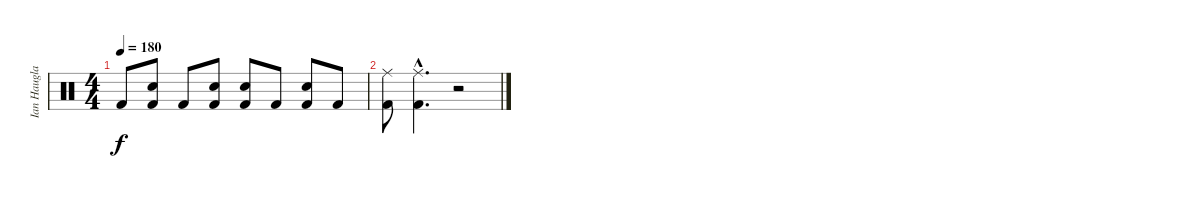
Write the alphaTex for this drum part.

\track ("Ian Haugland drums" "Ian Haugla") {instrument percussion}
\staff {score}
\articulation defaults
\ts (4 4)
\tempo 180
\clef neutral
\ks c "Kick (hit) 2".8{dy f}
("Snare (hit) 2" "Kick (hit) 2").8 "Kick (hit) 2".8 ("Snare (hit) 2" "Kick (hit) 2").8 ("Snare (hit) 2" "Kick (hit) 2").8 "Kick (hit) 2".8 ("Snare (hit) 2" "Kick (hit) 2").8 "Kick (hit) 2".8 |
("Ride (middle)" "Kick (hit) 2").8 ("Ride (middle)"{hac} "Kick (hit) 2"{hac}).4{d} r.2
